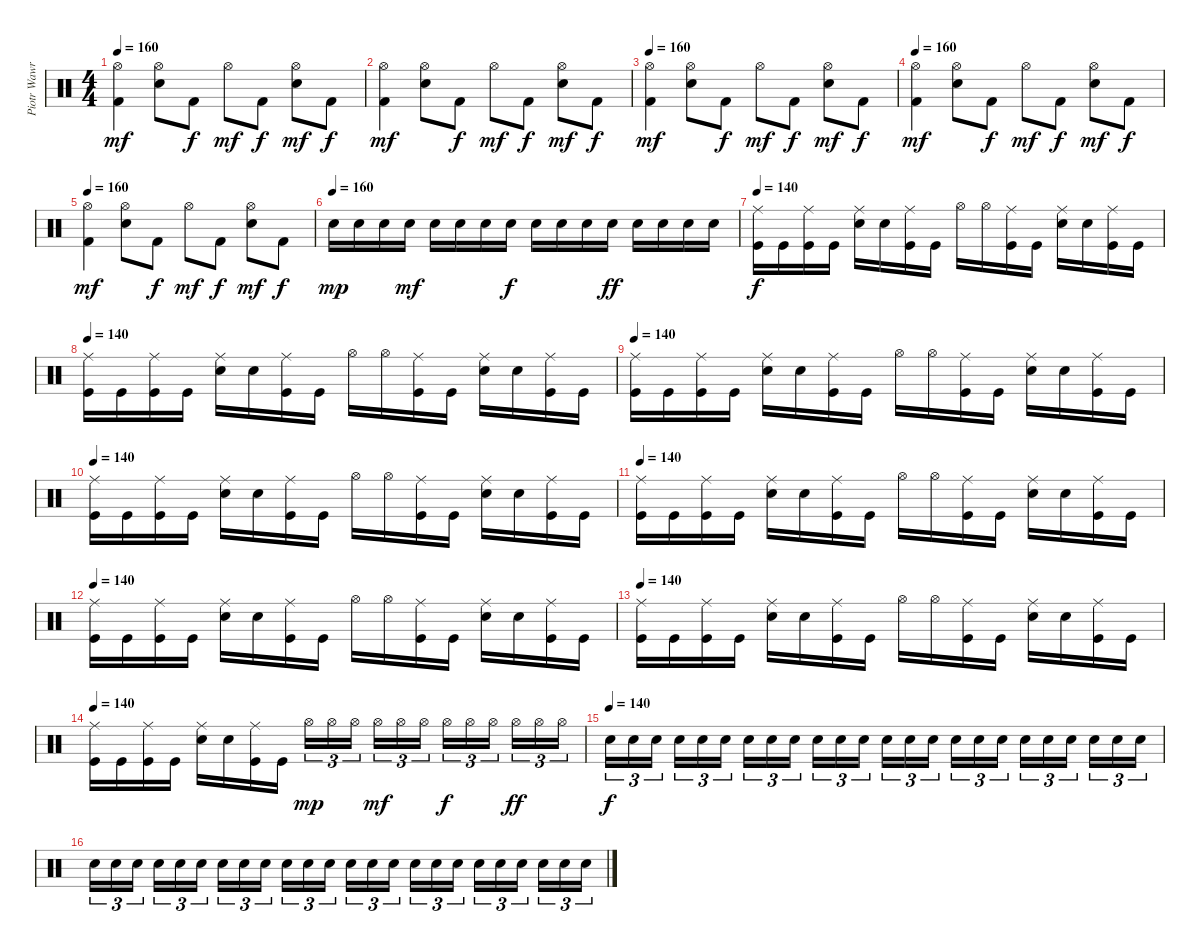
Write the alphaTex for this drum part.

\track ("Piotr Wawrzeniunk (drums)" "Piotr Wawr") {instrument percussion}
\staff {score}
\articulation defaults
\ts (4 4)
\tempo 160
\clef neutral
\ks c
("Kick (hit) 2" "Hi-Hat (open)").4{dy mf} ("Electric Snare (hit)" "Hi-Hat (open)").8 "Kick (hit) 2".8{dy f} "Hi-Hat (open)".8{dy mf} "Kick (hit) 2".8{dy f} ("Electric Snare (hit)" "Hi-Hat (open)").8{dy mf} "Kick (hit) 2".8{dy f} |
("Kick (hit) 2" "Hi-Hat (open)").4{dy mf} ("Electric Snare (hit)" "Hi-Hat (open)").8 "Kick (hit) 2".8{dy f} "Hi-Hat (open)".8{dy mf} "Kick (hit) 2".8{dy f} ("Electric Snare (hit)" "Hi-Hat (open)").8{dy mf} "Kick (hit) 2".8{dy f} |
\tempo 160
("Kick (hit) 2" "Hi-Hat (open)").4{dy mf} ("Electric Snare (hit)" "Hi-Hat (open)").8 "Kick (hit) 2".8{dy f} "Hi-Hat (open)".8{dy mf} "Kick (hit) 2".8{dy f} ("Electric Snare (hit)" "Hi-Hat (open)").8{dy mf} "Kick (hit) 2".8{dy f} |
\tempo 160
("Kick (hit) 2" "Hi-Hat (open)").4{dy mf} ("Electric Snare (hit)" "Hi-Hat (open)").8 "Kick (hit) 2".8{dy f} "Hi-Hat (open)".8{dy mf} "Kick (hit) 2".8{dy f} ("Electric Snare (hit)" "Hi-Hat (open)").8{dy mf} "Kick (hit) 2".8{dy f} |
\tempo 160
("Kick (hit) 2" "Hi-Hat (open)").4{dy mf} ("Electric Snare (hit)" "Hi-Hat (open)").8 "Kick (hit) 2".8{dy f} "Hi-Hat (open)".8{dy mf} "Kick (hit) 2".8{dy f} ("Electric Snare (hit)" "Hi-Hat (open)").8{dy mf} "Kick (hit) 2".8{dy f} |
\tempo (160)
"Electric Snare (hit)".16{dy mp} "Electric Snare (hit)".16 "Electric Snare (hit)".16 "Electric Snare (hit)".16{dy mf} "Electric Snare (hit)".16 "Electric Snare (hit)".16 "Electric Snare (hit)".16 "Electric Snare (hit)".16{dy f} "Electric Snare (hit)".16 "Electric Snare (hit)".16 "Electric Snare (hit)".16 "Electric Snare (hit)".16{dy ff} "Electric Snare (hit)".16 "Electric Snare (hit)".16 "Electric Snare (hit)".16 "Electric Snare (hit)".16 |
\tempo 140
("Kick (hit)" "Ride (middle)").16{dy f} "Kick (hit)".16 ("Kick (hit)" "Ride (middle)").16 "Kick (hit)".16 ("Electric Snare (hit)" "Ride (middle)").16 "Electric Snare (hit)".16 ("Kick (hit)" "Ride (middle)").16 "Kick (hit)".16 "Hi-Hat (open)".16 "Hi-Hat (open)".16 ("Kick (hit)" "Ride (middle)").16 "Kick (hit)".16 ("Electric Snare (hit)" "Ride (middle)").16 "Electric Snare (hit)".16 ("Kick (hit)" "Ride (middle)").16 "Kick (hit)".16 |
\tempo 140
("Kick (hit)" "Ride (middle)").16 "Kick (hit)".16 ("Kick (hit)" "Ride (middle)").16 "Kick (hit)".16 ("Electric Snare (hit)" "Ride (middle)").16 "Electric Snare (hit)".16 ("Kick (hit)" "Ride (middle)").16 "Kick (hit)".16 "Hi-Hat (open)".16 "Hi-Hat (open)".16 ("Kick (hit)" "Ride (middle)").16 "Kick (hit)".16 ("Electric Snare (hit)" "Ride (middle)").16 "Electric Snare (hit)".16 ("Kick (hit)" "Ride (middle)").16 "Kick (hit)".16 |
\tempo 140
("Kick (hit)" "Ride (middle)").16 "Kick (hit)".16 ("Kick (hit)" "Ride (middle)").16 "Kick (hit)".16 ("Electric Snare (hit)" "Ride (middle)").16 "Electric Snare (hit)".16 ("Kick (hit)" "Ride (middle)").16 "Kick (hit)".16 "Hi-Hat (open)".16 "Hi-Hat (open)".16 ("Kick (hit)" "Ride (middle)").16 "Kick (hit)".16 ("Electric Snare (hit)" "Ride (middle)").16 "Electric Snare (hit)".16 ("Kick (hit)" "Ride (middle)").16 "Kick (hit)".16 |
\tempo 140
("Kick (hit)" "Ride (middle)").16 "Kick (hit)".16 ("Kick (hit)" "Ride (middle)").16 "Kick (hit)".16 ("Electric Snare (hit)" "Ride (middle)").16 "Electric Snare (hit)".16 ("Kick (hit)" "Ride (middle)").16 "Kick (hit)".16 "Hi-Hat (open)".16 "Hi-Hat (open)".16 ("Kick (hit)" "Ride (middle)").16 "Kick (hit)".16 ("Electric Snare (hit)" "Ride (middle)").16 "Electric Snare (hit)".16 ("Kick (hit)" "Ride (middle)").16 "Kick (hit)".16 |
\tempo 140
("Kick (hit)" "Ride (middle)").16 "Kick (hit)".16 ("Kick (hit)" "Ride (middle)").16 "Kick (hit)".16 ("Electric Snare (hit)" "Ride (middle)").16 "Electric Snare (hit)".16 ("Kick (hit)" "Ride (middle)").16 "Kick (hit)".16 "Hi-Hat (open)".16 "Hi-Hat (open)".16 ("Kick (hit)" "Ride (middle)").16 "Kick (hit)".16 ("Electric Snare (hit)" "Ride (middle)").16 "Electric Snare (hit)".16 ("Kick (hit)" "Ride (middle)").16 "Kick (hit)".16 |
\tempo 140
("Kick (hit)" "Ride (middle)").16 "Kick (hit)".16 ("Kick (hit)" "Ride (middle)").16 "Kick (hit)".16 ("Electric Snare (hit)" "Ride (middle)").16 "Electric Snare (hit)".16 ("Kick (hit)" "Ride (middle)").16 "Kick (hit)".16 "Hi-Hat (open)".16 "Hi-Hat (open)".16 ("Kick (hit)" "Ride (middle)").16 "Kick (hit)".16 ("Electric Snare (hit)" "Ride (middle)").16 "Electric Snare (hit)".16 ("Kick (hit)" "Ride (middle)").16 "Kick (hit)".16 |
\tempo 140
("Kick (hit)" "Ride (middle)").16 "Kick (hit)".16 ("Kick (hit)" "Ride (middle)").16 "Kick (hit)".16 ("Electric Snare (hit)" "Ride (middle)").16 "Electric Snare (hit)".16 ("Kick (hit)" "Ride (middle)").16 "Kick (hit)".16 "Hi-Hat (open)".16 "Hi-Hat (open)".16 ("Kick (hit)" "Ride (middle)").16 "Kick (hit)".16 ("Electric Snare (hit)" "Ride (middle)").16 "Electric Snare (hit)".16 ("Kick (hit)" "Ride (middle)").16 "Kick (hit)".16 |
\tempo 140
("Kick (hit)" "Ride (middle)").16 "Kick (hit)".16 ("Kick (hit)" "Ride (middle)").16 "Kick (hit)".16 ("Electric Snare (hit)" "Ride (middle)").16 "Electric Snare (hit)".16 ("Kick (hit)" "Ride (middle)").16 "Kick (hit)".16 "Hi-Hat (open)".16{tu (3 2) dy mp} "Hi-Hat (open)".16{tu (3 2)} "Hi-Hat (open)".16{tu (3 2)} "Hi-Hat (open)".16{tu (3 2) dy mf} "Hi-Hat (open)".16{tu (3 2)} "Hi-Hat (open)".16{tu (3 2)} "Hi-Hat (open)".16{tu (3 2) dy f} "Hi-Hat (open)".16{tu (3 2)} "Hi-Hat (open)".16{tu (3 2)} "Hi-Hat (open)".16{tu (3 2) dy ff} "Hi-Hat (open)".16{tu (3 2)} "Hi-Hat (open)".16{tu (3 2)} |
\tempo (140)
"Electric Snare (hit)".16{tu (3 2) dy f volume 11} "Electric Snare (hit)".16{tu (3 2)} "Electric Snare (hit)".16{tu (3 2)} "Electric Snare (hit)".16{tu (3 2)} "Electric Snare (hit)".16{tu (3 2)} "Electric Snare (hit)".16{tu (3 2)} "Electric Snare (hit)".16{tu (3 2)} "Electric Snare (hit)".16{tu (3 2)} "Electric Snare (hit)".16{tu (3 2)} "Electric Snare (hit)".16{tu (3 2)} "Electric Snare (hit)".16{tu (3 2)} "Electric Snare (hit)".16{tu (3 2)} "Electric Snare (hit)".16{tu (3 2)} "Electric Snare (hit)".16{tu (3 2)} "Electric Snare (hit)".16{tu (3 2)} "Electric Snare (hit)".16{tu (3 2)} "Electric Snare (hit)".16{tu (3 2)} "Electric Snare (hit)".16{tu (3 2)} "Electric Snare (hit)".16{tu (3 2)} "Electric Snare (hit)".16{tu (3 2)} "Electric Snare (hit)".16{tu (3 2)} "Electric Snare (hit)".16{tu (3 2)} "Electric Snare (hit)".16{tu (3 2)} "Electric Snare (hit)".16{tu (3 2)} |
"Electric Snare (hit)".16{tu (3 2)} "Electric Snare (hit)".16{tu (3 2)} "Electric Snare (hit)".16{tu (3 2)} "Electric Snare (hit)".16{tu (3 2)} "Electric Snare (hit)".16{tu (3 2)} "Electric Snare (hit)".16{tu (3 2)} "Electric Snare (hit)".16{tu (3 2)} "Electric Snare (hit)".16{tu (3 2)} "Electric Snare (hit)".16{tu (3 2)} "Electric Snare (hit)".16{tu (3 2)} "Electric Snare (hit)".16{tu (3 2)} "Electric Snare (hit)".16{tu (3 2)} "Electric Snare (hit)".16{tu (3 2)} "Electric Snare (hit)".16{tu (3 2)} "Electric Snare (hit)".16{tu (3 2)} "Electric Snare (hit)".16{tu (3 2)} "Electric Snare (hit)".16{tu (3 2)} "Electric Snare (hit)".16{tu (3 2)} "Electric Snare (hit)".16{tu (3 2)} "Electric Snare (hit)".16{tu (3 2)} "Electric Snare (hit)".16{tu (3 2)} "Electric Snare (hit)".16{tu (3 2)} "Electric Snare (hit)".16{tu (3 2)} "Electric Snare (hit)".16{tu (3 2)}
